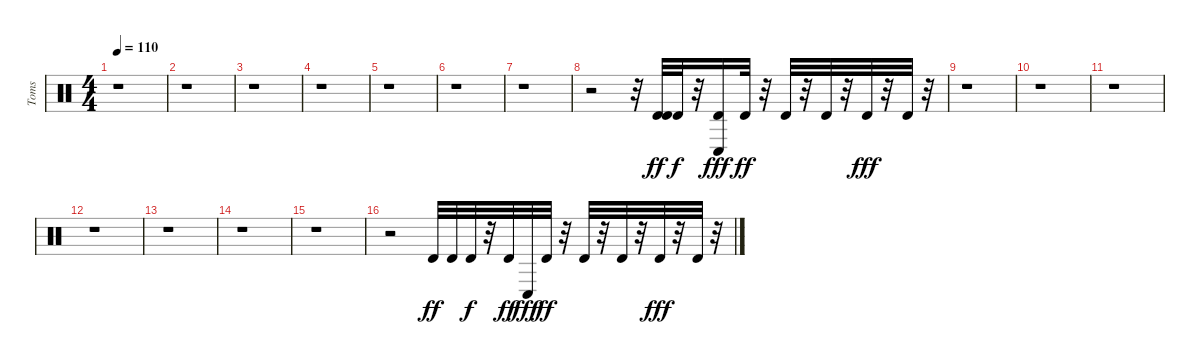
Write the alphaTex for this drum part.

\track ("Toms" "Toms") {instrument percussion}
\staff {score}
\articulation defaults
\ts (4 4)
\tempo 110
\clef neutral
\ks c
r.1{dy ff} |
r.1 |
r.1 |
r.1 |
r.1 |
r.1 |
r.1 |
r.2 r.32 ("Timbale high (hit)" "Timbale high (hit)").32 "Timbale high (hit)".32{dy f} r.32 ("Timbale high (hit)" "Conga low (hit)").16{dy fff} "Timbale high (hit)".32{dy ff} r.32 "Timbale high (hit)".32 r.32 "Timbale high (hit)".32 r.32 "Timbale high (hit)".32{dy fff} r.32 "Timbale high (hit)".32 r.32 |
r.1 |
r.1 |
r.1 |
r.1 |
r.1 |
r.1 |
r.1 |
r.2 "Timbale high (hit)".32{dy ff} "Timbale high (hit)".32 "Timbale high (hit)".32{dy f} r.32 "Timbale high (hit)".32{dy ff} "Conga low (hit)".32{dy fff} "Timbale high (hit)".32{dy ff} r.32 "Timbale high (hit)".32 r.32 "Timbale high (hit)".32 r.32 "Timbale high (hit)".32{dy fff} r.32 "Timbale high (hit)".32 r.32
